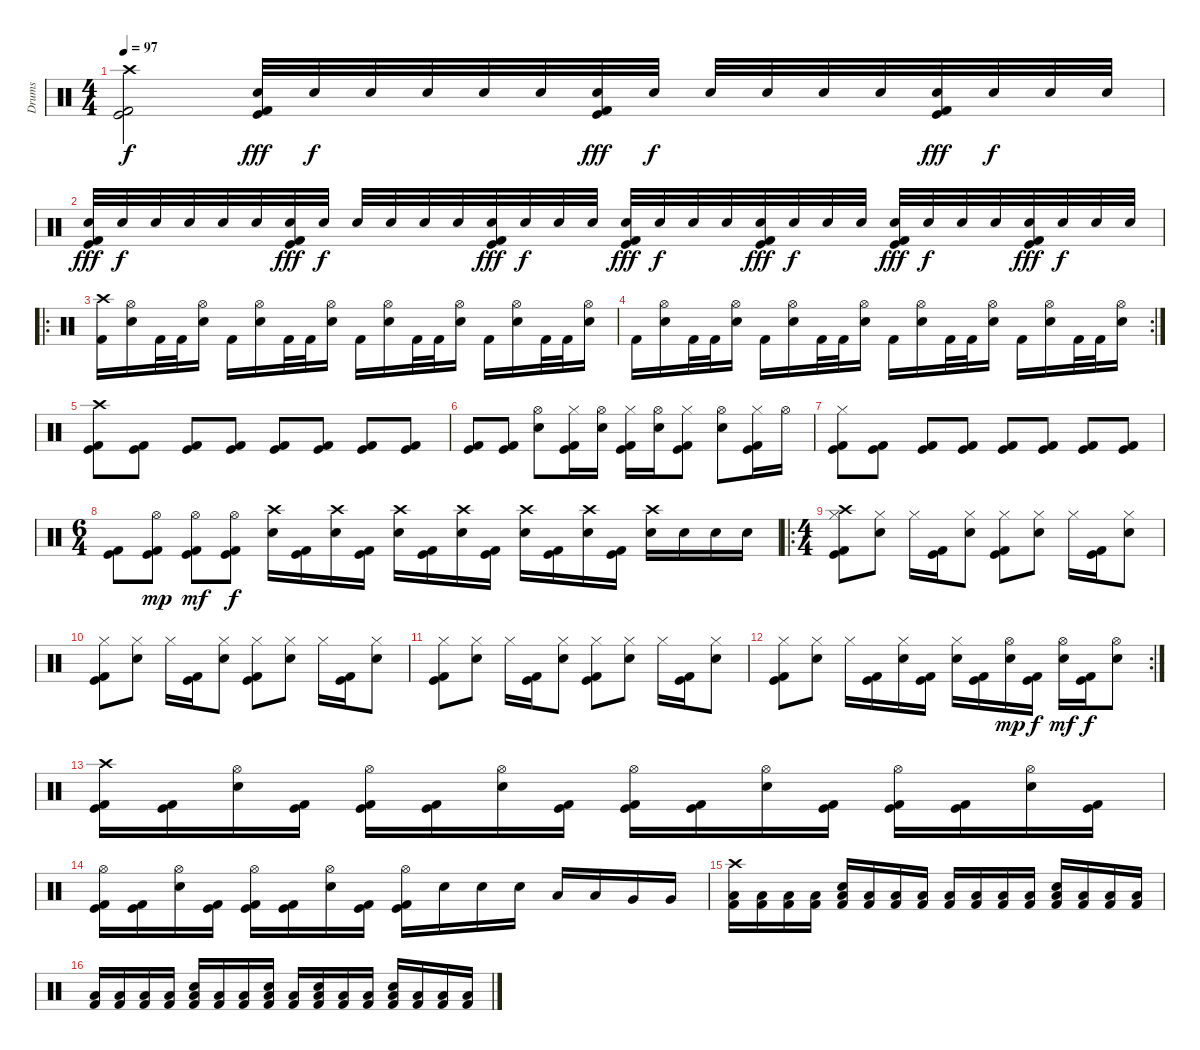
\track ("Drums" "Drums") {instrument percussion}
\staff {score}
\articulation defaults
\ts (4 4)
\tempo 97
\clef neutral
\ks c
("Crash high (hit)" "Kick (hit)" "Kick (hit) 2").2{dy f} ("Electric Snare (hit)" "Kick (hit)" "Kick (hit) 2").32{dy fff} "Electric Snare (hit)".32{dy f} "Electric Snare (hit)".32 "Electric Snare (hit)".32 "Electric Snare (hit)".32 "Electric Snare (hit)".32 ("Electric Snare (hit)" "Kick (hit)" "Kick (hit) 2").32{dy fff} "Electric Snare (hit)".32{dy f} "Electric Snare (hit)".32 "Electric Snare (hit)".32 "Electric Snare (hit)".32 "Electric Snare (hit)".32 ("Electric Snare (hit)" "Kick (hit)" "Kick (hit) 2").32{dy fff} "Electric Snare (hit)".32{dy f} "Electric Snare (hit)".32 "Electric Snare (hit)".32 |
("Electric Snare (hit)" "Kick (hit) 2" "Kick (hit)").32{dy fff} "Electric Snare (hit)".32{dy f} "Electric Snare (hit)".32 "Electric Snare (hit)".32 "Electric Snare (hit)".32 "Electric Snare (hit)".32 ("Electric Snare (hit)" "Kick (hit) 2" "Kick (hit)").32{dy fff} "Electric Snare (hit)".32{dy f} "Electric Snare (hit)".32 "Electric Snare (hit)".32 "Electric Snare (hit)".32 "Electric Snare (hit)".32 ("Electric Snare (hit)" "Kick (hit) 2" "Kick (hit)").32{dy fff} "Electric Snare (hit)".32{dy f} "Electric Snare (hit)".32 "Electric Snare (hit)".32 ("Electric Snare (hit)" "Kick (hit)" "Kick (hit) 2").32{dy fff} "Electric Snare (hit)".32{dy f} "Electric Snare (hit)".32 "Electric Snare (hit)".32 ("Electric Snare (hit)" "Kick (hit)" "Kick (hit) 2").32{dy fff} "Electric Snare (hit)".32{dy f} "Electric Snare (hit)".32 "Electric Snare (hit)".32 ("Electric Snare (hit)" "Kick (hit)" "Kick (hit) 2").32{dy fff} "Electric Snare (hit)".32{dy f} "Electric Snare (hit)".32 "Electric Snare (hit)".32 ("Electric Snare (hit)" "Kick (hit)" "Kick (hit) 2").32{dy fff} "Electric Snare (hit)".32{dy f} "Electric Snare (hit)".32 "Electric Snare (hit)".32 |
\ro
("Crash high (hit)" "Kick (hit) 2").16 ("Hi-Hat (open)" "Electric Snare (hit)").16 "Kick (hit) 2".32 "Kick (hit) 2".32 ("Hi-Hat (open)" "Electric Snare (hit)").16 "Kick (hit) 2".16 ("Hi-Hat (open)" "Electric Snare (hit)").16 "Kick (hit) 2".32 "Kick (hit) 2".32 ("Hi-Hat (open)" "Electric Snare (hit)").16 "Kick (hit) 2".16 ("Hi-Hat (open)" "Electric Snare (hit)").16 "Kick (hit) 2".32 "Kick (hit) 2".32 ("Hi-Hat (open)" "Electric Snare (hit)").16 "Kick (hit) 2".16 ("Hi-Hat (open)" "Electric Snare (hit)").16 "Kick (hit) 2".32 "Kick (hit) 2".32 ("Hi-Hat (open)" "Electric Snare (hit)").16 |
\rc 2 "Kick (hit) 2".16
("Hi-Hat (open)" "Electric Snare (hit)").16 "Kick (hit) 2".32 "Kick (hit) 2".32 ("Hi-Hat (open)" "Electric Snare (hit)").16 "Kick (hit) 2".16 ("Hi-Hat (open)" "Electric Snare (hit)").16 "Kick (hit) 2".32 "Kick (hit) 2".32 ("Hi-Hat (open)" "Electric Snare (hit)").16 "Kick (hit) 2".16 ("Hi-Hat (open)" "Electric Snare (hit)").16 "Kick (hit) 2".32 "Kick (hit) 2".32 ("Hi-Hat (open)" "Electric Snare (hit)").16 "Kick (hit) 2".16 ("Hi-Hat (open)" "Electric Snare (hit)").16 "Kick (hit) 2".32 "Kick (hit) 2".32 ("Hi-Hat (open)" "Electric Snare (hit)").16 |
("Crash high (hit)" "Kick (hit)" "Kick (hit) 2").8 ("Kick (hit)" "Kick (hit) 2").8 ("Kick (hit)" "Kick (hit) 2").8 ("Kick (hit)" "Kick (hit) 2").8 ("Kick (hit)" "Kick (hit) 2").8 ("Kick (hit)" "Kick (hit) 2").8 ("Kick (hit)" "Kick (hit) 2").8 ("Kick (hit)" "Kick (hit) 2").8 |
("Kick (hit)" "Kick (hit) 2").8 ("Kick (hit) 2" "Kick (hit)").8 ("Hi-Hat (open)" "Electric Snare (hit)").8 ("Hi-Hat (closed)" "Kick (hit) 2" "Kick (hit)").16 ("Hi-Hat (open)" "Electric Snare (hit)").16 ("Hi-Hat (closed)" "Kick (hit) 2" "Kick (hit)").16 ("Hi-Hat (open)" "Electric Snare (hit)").16 ("Hi-Hat (closed)" "Kick (hit) 2" "Kick (hit)").8 ("Hi-Hat (open)" "Electric Snare (hit)").8 ("Hi-Hat (closed)" "Kick (hit) 2" "Kick (hit)").16 "Hi-Hat (open)".16 |
("Hi-Hat (closed)" "Kick (hit)" "Kick (hit) 2").8 ("Kick (hit)" "Kick (hit) 2").8 ("Kick (hit)" "Kick (hit) 2").8 ("Kick (hit)" "Kick (hit) 2").8 ("Kick (hit)" "Kick (hit) 2").8 ("Kick (hit)" "Kick (hit) 2").8 ("Kick (hit)" "Kick (hit) 2").8 ("Kick (hit)" "Kick (hit) 2").8 |
\ts (6 4)
("Kick (hit)" "Kick (hit) 2").8 ("Hi-Hat (open)" "Kick (hit)" "Kick (hit) 2").8{dy mp} ("Hi-Hat (open)" "Kick (hit)" "Kick (hit) 2").8{dy mf} ("Hi-Hat (open)" "Kick (hit)" "Kick (hit) 2").8{dy f} ("Crash high (hit)" "Electric Snare (hit)").16 ("Kick (hit)" "Kick (hit) 2").16 ("Crash high (hit)" "Electric Snare (hit)").16 ("Kick (hit)" "Kick (hit) 2").16 ("Crash high (hit)" "Electric Snare (hit)").16 ("Kick (hit)" "Kick (hit) 2").16 ("Crash high (hit)" "Electric Snare (hit)").16 ("Kick (hit)" "Kick (hit) 2").16 ("Crash high (hit)" "Electric Snare (hit)").16 ("Kick (hit)" "Kick (hit) 2").16 ("Crash high (hit)" "Electric Snare (hit)").16 ("Kick (hit)" "Kick (hit) 2").16 ("Crash high (hit)" "Electric Snare (hit)").16 "Electric Snare (hit)".16 "Electric Snare (hit)".16 "Electric Snare (hit)".16 |
\ro
\ts (4 4)
("Hi-Hat (closed)" "Crash high (hit)" "Kick (hit) 2" "Kick (hit)").8 ("Hi-Hat (closed)" "Electric Snare (hit)").8 "Hi-Hat (closed)".16 ("Kick (hit)" "Kick (hit) 2").16 ("Hi-Hat (closed)" "Electric Snare (hit)").8 ("Hi-Hat (closed)" "Kick (hit)" "Kick (hit) 2").8 ("Hi-Hat (closed)" "Electric Snare (hit)").8 "Hi-Hat (closed)".16 ("Kick (hit) 2" "Kick (hit)").16 ("Hi-Hat (closed)" "Electric Snare (hit)").8 |
("Hi-Hat (closed)" "Kick (hit) 2" "Kick (hit)").8 ("Hi-Hat (closed)" "Electric Snare (hit)").8 "Hi-Hat (closed)".16 ("Kick (hit)" "Kick (hit) 2").16 ("Hi-Hat (closed)" "Electric Snare (hit)").8 ("Hi-Hat (closed)" "Kick (hit)" "Kick (hit) 2").8 ("Hi-Hat (closed)" "Electric Snare (hit)").8 "Hi-Hat (closed)".16 ("Kick (hit) 2" "Kick (hit)").16 ("Hi-Hat (closed)" "Electric Snare (hit)").8 |
("Hi-Hat (closed)" "Kick (hit) 2" "Kick (hit)").8 ("Hi-Hat (closed)" "Electric Snare (hit)").8 "Hi-Hat (closed)".16 ("Kick (hit)" "Kick (hit) 2").16 ("Hi-Hat (closed)" "Electric Snare (hit)").8 ("Hi-Hat (closed)" "Kick (hit)" "Kick (hit) 2").8 ("Hi-Hat (closed)" "Electric Snare (hit)").8 "Hi-Hat (closed)".16 ("Kick (hit) 2" "Kick (hit)").16 ("Hi-Hat (closed)" "Electric Snare (hit)").8 |
\rc 2
("Hi-Hat (closed)" "Kick (hit) 2" "Kick (hit)").8 ("Hi-Hat (closed)" "Electric Snare (hit)").8 "Hi-Hat (closed)".16 ("Kick (hit)" "Kick (hit) 2").16 ("Hi-Hat (closed)" "Electric Snare (hit)").16 ("Kick (hit)" "Kick (hit) 2").16 ("Hi-Hat (closed)" "Electric Snare (hit)").16 ("Kick (hit)" "Kick (hit) 2").16 ("Hi-Hat (open)" "Electric Snare (hit)").16{dy mp} ("Kick (hit)" "Kick (hit) 2").16{dy f} ("Hi-Hat (open)" "Electric Snare (hit)").16{dy mf} ("Kick (hit)" "Kick (hit) 2").16{dy f} ("Hi-Hat (open)" "Electric Snare (hit)").8 |
("Crash high (hit)" "Kick (hit)" "Kick (hit) 2").16 ("Kick (hit)" "Kick (hit) 2").16 ("Hi-Hat (open)" "Electric Snare (hit)").16 ("Kick (hit)" "Kick (hit) 2").16 ("Hi-Hat (open)" "Kick (hit)" "Kick (hit) 2").16 ("Kick (hit)" "Kick (hit) 2").16 ("Hi-Hat (open)" "Electric Snare (hit)").16 ("Kick (hit)" "Kick (hit) 2").16 ("Hi-Hat (open)" "Kick (hit)" "Kick (hit) 2").16 ("Kick (hit)" "Kick (hit) 2").16 ("Hi-Hat (open)" "Electric Snare (hit)").16 ("Kick (hit)" "Kick (hit) 2").16 ("Hi-Hat (open)" "Kick (hit)" "Kick (hit) 2").16 ("Kick (hit)" "Kick (hit) 2").16 ("Hi-Hat (open)" "Electric Snare (hit)").16 ("Kick (hit)" "Kick (hit) 2").16 |
("Hi-Hat (open)" "Kick (hit) 2" "Kick (hit)").16 ("Kick (hit) 2" "Kick (hit)").16 ("Hi-Hat (open)" "Electric Snare (hit)").16 ("Kick (hit) 2" "Kick (hit)").16 ("Hi-Hat (open)" "Kick (hit) 2" "Kick (hit)").16 ("Kick (hit) 2" "Kick (hit)").16 ("Hi-Hat (open)" "Electric Snare (hit)").16 ("Kick (hit) 2" "Kick (hit)").16 ("Hi-Hat (open)" "Kick (hit) 2" "Kick (hit)").16 "Electric Snare (hit)".16 "Electric Snare (hit)".16 "Electric Snare (hit)".16 "Low Tom (hit)".16{balance 16} "Low Tom (hit)".16{balance 12} "Very Low Tom (hit)".16{balance 8} "Very Low Tom (hit)".16{balance 6} |
("Crash high (hit)" "Low Floor Tom (hit)" "Kick (hit) 2").16{balance 8} ("Low Floor Tom (hit)" "Kick (hit) 2").16 ("Low Floor Tom (hit)" "Kick (hit) 2").16 ("Low Floor Tom (hit)" "Kick (hit) 2").16 ("Electric Snare (hit)" "Low Floor Tom (hit)" "Kick (hit) 2").16 ("Low Floor Tom (hit)" "Kick (hit) 2").16 ("Low Floor Tom (hit)" "Kick (hit) 2").16 ("Low Floor Tom (hit)" "Kick (hit) 2").16 ("Low Floor Tom (hit)" "Kick (hit) 2").16 ("Low Floor Tom (hit)" "Kick (hit) 2").16 ("Low Floor Tom (hit)" "Kick (hit) 2").16 ("Low Floor Tom (hit)" "Kick (hit) 2").16 ("Electric Snare (hit)" "Low Floor Tom (hit)" "Kick (hit) 2").16 ("Low Floor Tom (hit)" "Kick (hit) 2").16 ("Low Floor Tom (hit)" "Kick (hit) 2").16 ("Low Floor Tom (hit)" "Kick (hit) 2").16 |
("Low Floor Tom (hit)" "Kick (hit) 2").16 ("Low Floor Tom (hit)" "Kick (hit) 2").16 ("Low Floor Tom (hit)" "Kick (hit) 2").16 ("Low Floor Tom (hit)" "Kick (hit) 2").16 ("Electric Snare (hit)" "Low Floor Tom (hit)" "Kick (hit) 2").16 ("Low Floor Tom (hit)" "Kick (hit) 2").16 ("Low Floor Tom (hit)" "Kick (hit) 2").16 ("Electric Snare (hit)" "Low Floor Tom (hit)" "Kick (hit) 2").16 ("Low Floor Tom (hit)" "Kick (hit) 2").16 ("Electric Snare (hit)" "Low Floor Tom (hit)" "Kick (hit) 2").16 ("Low Floor Tom (hit)" "Kick (hit) 2").16 ("Low Floor Tom (hit)" "Kick (hit) 2").16 ("Electric Snare (hit)" "Low Floor Tom (hit)" "Kick (hit) 2").16 ("Low Floor Tom (hit)" "Kick (hit) 2").16 ("Low Floor Tom (hit)" "Kick (hit) 2").16 ("Low Floor Tom (hit)" "Kick (hit) 2").16
